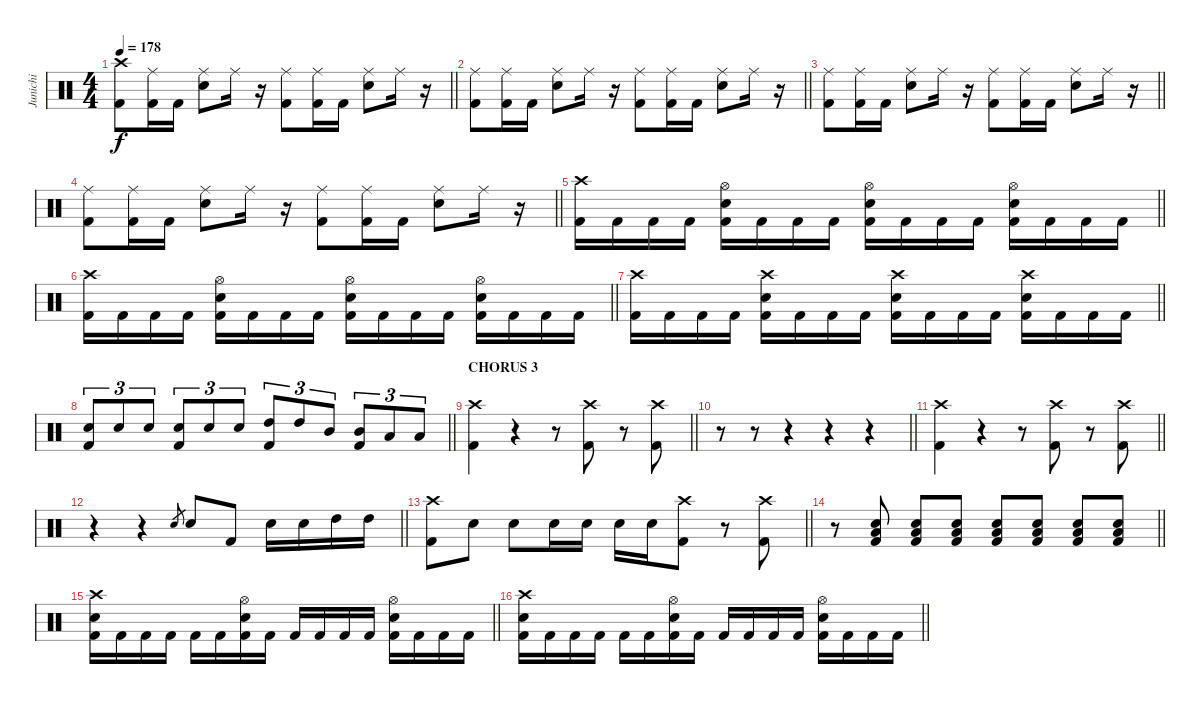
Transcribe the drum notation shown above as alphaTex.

\track ("Junichi" "Junichi") {instrument percussion}
\staff {score}
\articulation defaults
\ts (4 4)
\tempo 178
\clef neutral
\barLineRight lightlight
\ks c
("Crash high (hit)" "Kick (hit) 2").8{dy f} ("Ride (middle)" "Kick (hit) 2").16 "Kick (hit) 2".16 ("Ride (middle)" "Snare (hit) 2").8 "Ride (middle)".16 r.16 ("Ride (middle)" "Kick (hit) 2").8 ("Ride (middle)" "Kick (hit) 2").16 "Kick (hit) 2".16 ("Ride (middle)" "Snare (hit) 2").8 "Ride (middle)".16 r.16 |
\barLineRight lightlight
("Ride (middle)" "Kick (hit) 2").8 ("Ride (middle)" "Kick (hit) 2").16 "Kick (hit) 2".16 ("Ride (middle)" "Snare (hit) 2").8 "Ride (middle)".16 r.16 ("Ride (middle)" "Kick (hit) 2").8 ("Ride (middle)" "Kick (hit) 2").16 "Kick (hit) 2".16 ("Ride (middle)" "Snare (hit) 2").8 "Ride (middle)".16 r.16 |
\barLineRight lightlight
("Ride (middle)" "Kick (hit) 2").8 ("Ride (middle)" "Kick (hit) 2").16 "Kick (hit) 2".16 ("Ride (middle)" "Snare (hit) 2").8 "Ride (middle)".16 r.16 ("Ride (middle)" "Kick (hit) 2").8 ("Ride (middle)" "Kick (hit) 2").16 "Kick (hit) 2".16 ("Ride (middle)" "Snare (hit) 2").8 "Ride (middle)".16 r.16 |
\barLineRight lightlight
("Ride (middle)" "Kick (hit) 2").8 ("Ride (middle)" "Kick (hit) 2").16 "Kick (hit) 2".16 ("Ride (middle)" "Snare (hit) 2").8 "Ride (middle)".16 r.16 ("Ride (middle)" "Kick (hit) 2").8 ("Ride (middle)" "Kick (hit) 2").16 "Kick (hit) 2".16 ("Ride (middle)" "Snare (hit) 2").8 "Ride (middle)".16 r.16 |
\barLineRight lightlight
("Crash high (hit)" "Kick (hit) 2").16 "Kick (hit) 2".16 "Kick (hit) 2".16 "Kick (hit) 2".16 ("Hi-Hat (open)" "Snare (hit) 2" "Kick (hit) 2").16 "Kick (hit) 2".16 "Kick (hit) 2".16 "Kick (hit) 2".16 ("Hi-Hat (open)" "Snare (hit) 2" "Kick (hit) 2").16 "Kick (hit) 2".16 "Kick (hit) 2".16 "Kick (hit) 2".16 ("Hi-Hat (open)" "Snare (hit) 2" "Kick (hit) 2").16 "Kick (hit) 2".16 "Kick (hit) 2".16 "Kick (hit) 2".16 |
\barLineRight lightlight
("Crash high (hit)" "Kick (hit) 2").16 "Kick (hit) 2".16 "Kick (hit) 2".16 "Kick (hit) 2".16 ("Hi-Hat (open)" "Snare (hit) 2" "Kick (hit) 2").16 "Kick (hit) 2".16 "Kick (hit) 2".16 "Kick (hit) 2".16 ("Hi-Hat (open)" "Snare (hit) 2" "Kick (hit) 2").16 "Kick (hit) 2".16 "Kick (hit) 2".16 "Kick (hit) 2".16 ("Hi-Hat (open)" "Snare (hit) 2" "Kick (hit) 2").16 "Kick (hit) 2".16 "Kick (hit) 2".16 "Kick (hit) 2".16 |
\barLineRight lightlight
("Crash high (hit)" "Kick (hit) 2").16 "Kick (hit) 2".16 "Kick (hit) 2".16 "Kick (hit) 2".16 ("Crash high (hit)" "Snare (hit) 2" "Kick (hit) 2").16 "Kick (hit) 2".16 "Kick (hit) 2".16 "Kick (hit) 2".16 ("Crash high (hit)" "Snare (hit) 2" "Kick (hit) 2").16 "Kick (hit) 2".16 "Kick (hit) 2".16 "Kick (hit) 2".16 ("Crash high (hit)" "Snare (hit) 2" "Kick (hit) 2").16 "Kick (hit) 2".16 "Kick (hit) 2".16 "Kick (hit) 2".16 |
\barLineRight lightlight
("Snare (hit) 2" "Kick (hit) 2").8{tu (3 2)} "Snare (hit) 2".8{tu (3 2)} "Snare (hit) 2".8{tu (3 2)} ("Snare (hit) 2" "Kick (hit) 2").8{tu (3 2)} "Snare (hit) 2".8{tu (3 2)} "Snare (hit) 2".8{tu (3 2)} ("High Tom (hit)" "Kick (hit) 2").8{tu (3 2)} "High Tom (hit)".8{tu (3 2)} "Mid Tom (hit)".8{tu (3 2)} ("Mid Tom (hit)" "Kick (hit) 2").8{tu (3 2)} "Low Tom (hit)".8{tu (3 2)} "Low Tom (hit)".8{tu (3 2)} |
\section ("" "CHORUS 3")
\barLineRight lightlight
("Crash high (hit)" "Kick (hit) 2").4 r.4 r.8 ("Crash high (hit)" "Kick (hit) 2").8 r.8 ("Crash high (hit)" "Kick (hit) 2").8 |
\barLineRight lightlight
r.8 r.8 r.4 r.4 r.4 |
\barLineRight lightlight
("Crash high (hit)" "Kick (hit) 2").4 r.4 r.8 ("Crash high (hit)" "Kick (hit) 2").8 r.8 ("Crash high (hit)" "Kick (hit) 2").8 |
\barLineRight lightlight
r.4 r.4 "Snare (hit) 2".8{gr} "Snare (hit) 2".8 "Kick (hit) 2".8 "Snare (hit) 2".16 "Snare (hit) 2".16 "High Tom (hit)".16 "High Tom (hit)".16 |
\barLineRight lightlight
("Crash high (hit)" "Kick (hit) 2").8 "Snare (hit) 2".8 "Snare (hit) 2".8 "Snare (hit) 2".16 "Snare (hit) 2".16 "Snare (hit) 2".16 "Snare (hit) 2".16 ("Crash high (hit)" "Kick (hit) 2").8 r.8 ("Crash high (hit)" "Kick (hit) 2").8 |
\barLineRight lightlight
r.8 ("Snare (hit) 2" "Low Tom (hit)" "Kick (hit) 2").8 ("Snare (hit) 2" "Low Tom (hit)" "Kick (hit) 2").8 ("Snare (hit) 2" "Low Tom (hit)" "Kick (hit) 2").8 ("Snare (hit) 2" "Low Tom (hit)" "Kick (hit) 2").8 ("Snare (hit) 2" "Low Tom (hit)" "Kick (hit) 2").8 ("Snare (hit) 2" "Low Tom (hit)" "Kick (hit) 2").8 ("Snare (hit) 2" "Low Tom (hit)" "Kick (hit) 2").8 |
\barLineRight lightlight
("Crash high (hit)" "Snare (hit) 2" "Kick (hit) 2").16 "Kick (hit) 2".16 "Kick (hit) 2".16 "Kick (hit) 2".16 "Kick (hit) 2".16 "Kick (hit) 2".16 ("Hi-Hat (open)" "Snare (hit) 2" "Kick (hit) 2").16 "Kick (hit) 2".16 "Kick (hit) 2".16 "Kick (hit) 2".16 "Kick (hit) 2".16 "Kick (hit) 2".16 ("Hi-Hat (open)" "Snare (hit) 2" "Kick (hit) 2").16 "Kick (hit) 2".16 "Kick (hit) 2".16 "Kick (hit) 2".16 |
\barLineRight lightlight
("Crash high (hit)" "Snare (hit) 2" "Kick (hit) 2").16 "Kick (hit) 2".16 "Kick (hit) 2".16 "Kick (hit) 2".16 "Kick (hit) 2".16 "Kick (hit) 2".16 ("Hi-Hat (open)" "Snare (hit) 2" "Kick (hit) 2").16 "Kick (hit) 2".16 "Kick (hit) 2".16 "Kick (hit) 2".16 "Kick (hit) 2".16 "Kick (hit) 2".16 ("Hi-Hat (open)" "Snare (hit) 2" "Kick (hit) 2").16 "Kick (hit) 2".16 "Kick (hit) 2".16 "Kick (hit) 2".16
